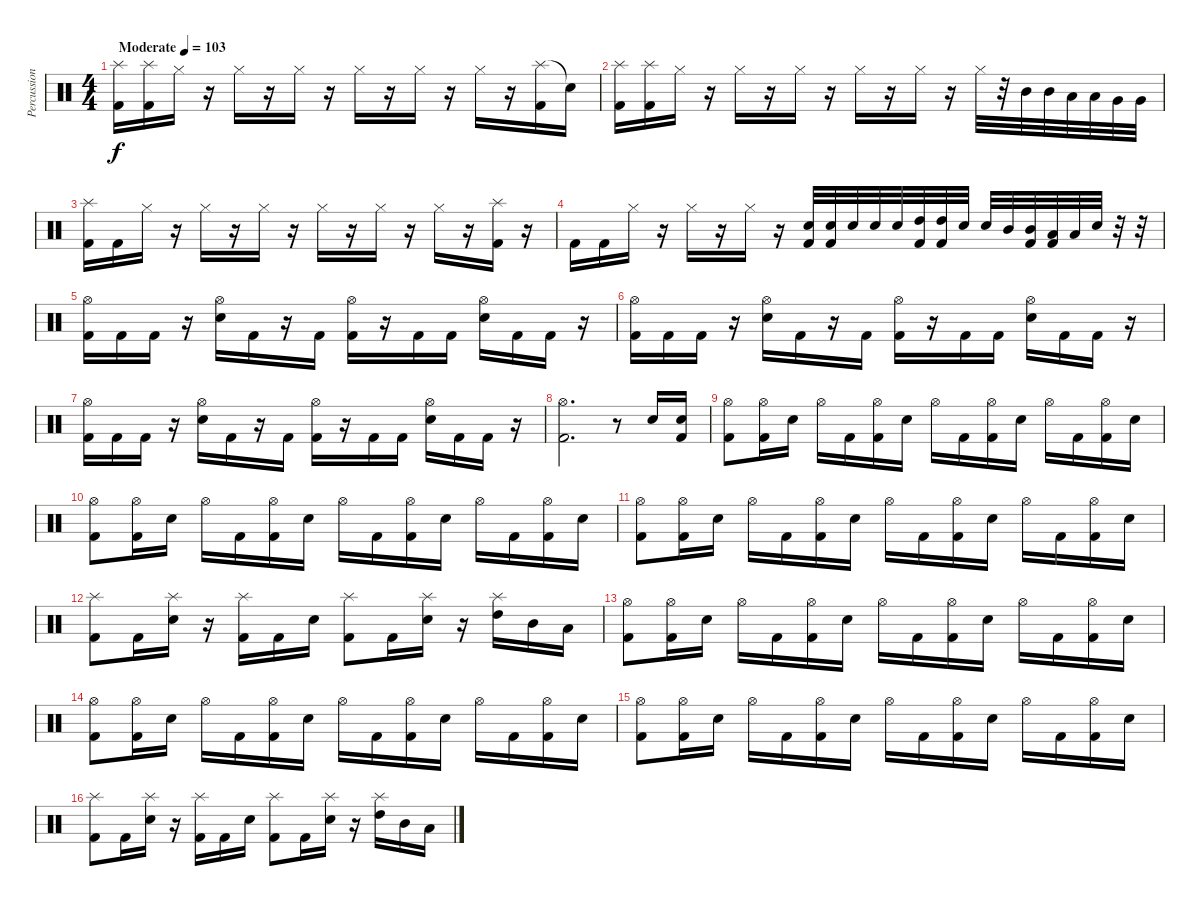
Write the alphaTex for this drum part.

\track ("Percussion" "Percussion") {instrument percussion}
\staff {score}
\articulation defaults
\ts (4 4)
\tempo (103 "Moderate")
\clef neutral
\ks c
("Splash (hit)" "Kick (hit) 2").16{dy f} ("Splash (hit)" "Kick (hit) 2").16 "Hi-Hat (closed)".16 r.16 "Hi-Hat (closed)".16 r.16 "Hi-Hat (closed)".16 r.16 "Hi-Hat (closed)".16 r.16 "Hi-Hat (closed)".16 r.16 "Hi-Hat (closed)".16 r.16 ("Splash (hit)" "Kick (hit) 2").16 "Snare (hit)"{t}.16 |
("Splash (hit)" "Kick (hit) 2").16 ("Splash (hit)" "Kick (hit) 2").16 "Hi-Hat (closed)".16 r.16 "Hi-Hat (closed)".16 r.16 "Hi-Hat (closed)".16 r.16 "Hi-Hat (closed)".16 r.16 "Hi-Hat (closed)".16 r.16 "Hi-Hat (closed)".32 r.32 "Mid Tom (hit)".32 "Mid Tom (hit)".32 "Low Tom (hit)".32 "Low Tom (hit)".32 "Very Low Tom (hit)".32 "Very Low Tom (hit)".32 |
("Splash (hit)" "Kick (hit) 2").16 "Kick (hit) 2".16 "Hi-Hat (closed)".16 r.16 "Hi-Hat (closed)".16 r.16 "Hi-Hat (closed)".16 r.16 "Hi-Hat (closed)".16 r.16 "Hi-Hat (closed)".16 r.16 "Hi-Hat (closed)".16 r.16 ("Splash (hit)" "Kick (hit) 2").16 r.16 |
"Kick (hit) 2".16 "Kick (hit) 2".16 "Hi-Hat (closed)".16 r.16 "Hi-Hat (closed)".16 r.16 "Hi-Hat (closed)".16 r.16 ("Electric Snare (hit)" "Kick (hit) 2").32 ("Electric Snare (hit)" "Kick (hit) 2").32 "Electric Snare (hit)".32 "Electric Snare (hit)".32 "Electric Snare (hit)".32 ("High Tom (hit)" "Kick (hit) 2").32 ("High Tom (hit)" "Kick (hit) 2").32 "Electric Snare (hit)".32 "Electric Snare (hit)".32 "Mid Tom (hit)".32 ("Mid Tom (hit)" "Kick (hit) 2").32 ("Low Tom (hit)" "Kick (hit) 2").32 "Low Tom (hit)".32 "Electric Snare (hit)".32 r.32 r.32 |
("Hi-Hat (open)" "Kick (hit) 2").16 "Kick (hit) 2".16 "Kick (hit) 2".16 r.16 ("Hi-Hat (open)" "Electric Snare (hit)").16 "Kick (hit) 2".16 r.16 "Kick (hit) 2".16 ("Hi-Hat (open)" "Kick (hit) 2").16 r.16 "Kick (hit) 2".16 "Kick (hit) 2".16 ("Hi-Hat (open)" "Electric Snare (hit)").16 "Kick (hit) 2".16 "Kick (hit) 2".16 r.16 |
("Hi-Hat (open)" "Kick (hit) 2").16 "Kick (hit) 2".16 "Kick (hit) 2".16 r.16 ("Hi-Hat (open)" "Electric Snare (hit)").16 "Kick (hit) 2".16 r.16 "Kick (hit) 2".16 ("Hi-Hat (open)" "Kick (hit) 2").16 r.16 "Kick (hit) 2".16 "Kick (hit) 2".16 ("Hi-Hat (open)" "Electric Snare (hit)").16 "Kick (hit) 2".16 "Kick (hit) 2".16 r.16 |
("Hi-Hat (open)" "Kick (hit) 2").16 "Kick (hit) 2".16 "Kick (hit) 2".16 r.16 ("Hi-Hat (open)" "Electric Snare (hit)").16 "Kick (hit) 2".16 r.16 "Kick (hit) 2".16 ("Hi-Hat (open)" "Kick (hit) 2").16 r.16 "Kick (hit) 2".16 "Kick (hit) 2".16 ("Hi-Hat (open)" "Electric Snare (hit)").16 "Kick (hit) 2".16 "Kick (hit) 2".16 r.16 |
("Hi-Hat (open)" "Kick (hit) 2").2{d} r.8 "Electric Snare (hit)".16 ("Electric Snare (hit)" "Kick (hit) 2").16 |
("Hi-Hat (open)" "Kick (hit) 2").8 ("Hi-Hat (open)" "Kick (hit) 2").16 "Electric Snare (hit)".16 "Hi-Hat (open)".16 "Kick (hit) 2".16 ("Hi-Hat (open)" "Kick (hit) 2").16 "Electric Snare (hit)".16 "Hi-Hat (open)".16 "Kick (hit) 2".16 ("Hi-Hat (open)" "Kick (hit) 2").16 "Electric Snare (hit)".16 "Hi-Hat (open)".16 "Kick (hit) 2".16 ("Hi-Hat (open)" "Kick (hit) 2").16 "Electric Snare (hit)".16 |
("Hi-Hat (open)" "Kick (hit) 2").8 ("Hi-Hat (open)" "Kick (hit) 2").16 "Electric Snare (hit)".16 "Hi-Hat (open)".16 "Kick (hit) 2".16 ("Hi-Hat (open)" "Kick (hit) 2").16 "Electric Snare (hit)".16 "Hi-Hat (open)".16 "Kick (hit) 2".16 ("Hi-Hat (open)" "Kick (hit) 2").16 "Electric Snare (hit)".16 "Hi-Hat (open)".16 "Kick (hit) 2".16 ("Hi-Hat (open)" "Kick (hit) 2").16 "Electric Snare (hit)".16 |
("Hi-Hat (open)" "Kick (hit) 2").8 ("Hi-Hat (open)" "Kick (hit) 2").16 "Electric Snare (hit)".16 "Hi-Hat (open)".16 "Kick (hit) 2".16 ("Hi-Hat (open)" "Kick (hit) 2").16 "Electric Snare (hit)".16 "Hi-Hat (open)".16 "Kick (hit) 2".16 ("Hi-Hat (open)" "Kick (hit) 2").16 "Electric Snare (hit)".16 "Hi-Hat (open)".16 "Kick (hit) 2".16 ("Hi-Hat (open)" "Kick (hit) 2").16 "Electric Snare (hit)".16 |
("Splash (hit)" "Kick (hit) 2").8 "Kick (hit) 2".16 ("Splash (hit)" "Electric Snare (hit)").16 r.16 ("Splash (hit)" "Kick (hit) 2").16 "Kick (hit) 2".16 "Electric Snare (hit)".16 ("Splash (hit)" "Kick (hit) 2").8 "Kick (hit) 2".16 ("Splash (hit)" "Electric Snare (hit)").16 r.16 ("Splash (hit)" "High Tom (hit)").16 "Mid Tom (hit)".16 "Low Tom (hit)".16 |
("Hi-Hat (open)" "Kick (hit) 2").8 ("Hi-Hat (open)" "Kick (hit) 2").16 "Electric Snare (hit)".16 "Hi-Hat (open)".16 "Kick (hit) 2".16 ("Hi-Hat (open)" "Kick (hit) 2").16 "Electric Snare (hit)".16 "Hi-Hat (open)".16 "Kick (hit) 2".16 ("Hi-Hat (open)" "Kick (hit) 2").16 "Electric Snare (hit)".16 "Hi-Hat (open)".16 "Kick (hit) 2".16 ("Hi-Hat (open)" "Kick (hit) 2").16 "Electric Snare (hit)".16 |
("Hi-Hat (open)" "Kick (hit) 2").8 ("Hi-Hat (open)" "Kick (hit) 2").16 "Electric Snare (hit)".16 "Hi-Hat (open)".16 "Kick (hit) 2".16 ("Hi-Hat (open)" "Kick (hit) 2").16 "Electric Snare (hit)".16 "Hi-Hat (open)".16 "Kick (hit) 2".16 ("Hi-Hat (open)" "Kick (hit) 2").16 "Electric Snare (hit)".16 "Hi-Hat (open)".16 "Kick (hit) 2".16 ("Hi-Hat (open)" "Kick (hit) 2").16 "Electric Snare (hit)".16 |
("Hi-Hat (open)" "Kick (hit) 2").8 ("Hi-Hat (open)" "Kick (hit) 2").16 "Electric Snare (hit)".16 "Hi-Hat (open)".16 "Kick (hit) 2".16 ("Hi-Hat (open)" "Kick (hit) 2").16 "Electric Snare (hit)".16 "Hi-Hat (open)".16 "Kick (hit) 2".16 ("Hi-Hat (open)" "Kick (hit) 2").16 "Electric Snare (hit)".16 "Hi-Hat (open)".16 "Kick (hit) 2".16 ("Hi-Hat (open)" "Kick (hit) 2").16 "Electric Snare (hit)".16 |
("Splash (hit)" "Kick (hit) 2").8 "Kick (hit) 2".16 ("Splash (hit)" "Electric Snare (hit)").16 r.16 ("Splash (hit)" "Kick (hit) 2").16 "Kick (hit) 2".16 "Electric Snare (hit)".16 ("Splash (hit)" "Kick (hit) 2").8 "Kick (hit) 2".16 ("Splash (hit)" "Electric Snare (hit)").16 r.16 ("Splash (hit)" "High Tom (hit)").16 "Mid Tom (hit)".16 "Low Tom (hit)".16
